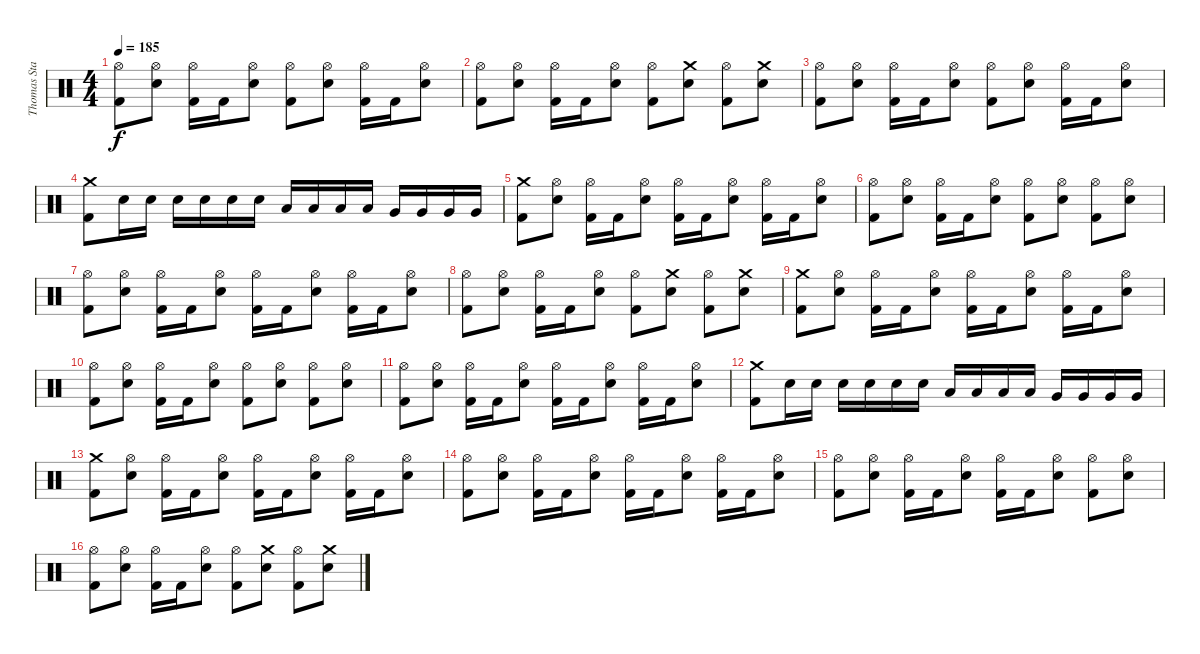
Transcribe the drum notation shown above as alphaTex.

\track ("Thomas Stauch" "Thomas Sta") {instrument percussion}
\staff {score}
\articulation defaults
\ts (4 4)
\tempo 185
\clef neutral
\ks c
("Hi-Hat (open)" "Kick (hit) 2").8{dy f} ("Hi-Hat (open)" "Electric Snare (hit)").8 ("Hi-Hat (open)" "Kick (hit) 2").16 "Kick (hit) 2".16 ("Hi-Hat (open)" "Electric Snare (hit)").8 ("Hi-Hat (open)" "Kick (hit) 2").8 ("Hi-Hat (open)" "Electric Snare (hit)").8 ("Hi-Hat (open)" "Kick (hit) 2").16 "Kick (hit) 2".16 ("Hi-Hat (open)" "Electric Snare (hit)").8 |
("Hi-Hat (open)" "Kick (hit) 2").8 ("Hi-Hat (open)" "Electric Snare (hit)").8 ("Hi-Hat (open)" "Kick (hit) 2").16 "Kick (hit) 2".16 ("Hi-Hat (open)" "Electric Snare (hit)").8 ("Hi-Hat (open)" "Kick (hit) 2").8 ("Crash medium (hit)" "Electric Snare (hit)").8 ("Hi-Hat (open)" "Kick (hit) 2").8 ("Crash medium (hit)" "Electric Snare (hit)").8 |
("Hi-Hat (open)" "Kick (hit) 2").8 ("Hi-Hat (open)" "Electric Snare (hit)").8 ("Hi-Hat (open)" "Kick (hit) 2").16 "Kick (hit) 2".16 ("Hi-Hat (open)" "Electric Snare (hit)").8 ("Hi-Hat (open)" "Kick (hit) 2").8 ("Hi-Hat (open)" "Electric Snare (hit)").8 ("Hi-Hat (open)" "Kick (hit) 2").16 "Kick (hit) 2".16 ("Hi-Hat (open)" "Electric Snare (hit)").8 |
("Crash medium (hit)" "Kick (hit) 2").8 "Electric Snare (hit)".16 "Electric Snare (hit)".16 "Electric Snare (hit)".16 "Electric Snare (hit)".16 "Electric Snare (hit)".16 "Electric Snare (hit)".16 "Low Tom (hit)".16 "Low Tom (hit)".16 "Low Tom (hit)".16 "Low Tom (hit)".16 "Very Low Tom (hit)".16 "Very Low Tom (hit)".16 "Very Low Tom (hit)".16 "Very Low Tom (hit)".16 |
("Crash medium (hit)" "Kick (hit) 2").8 ("Hi-Hat (open)" "Electric Snare (hit)").8 ("Hi-Hat (open)" "Kick (hit) 2").16 "Kick (hit) 2".16 ("Hi-Hat (open)" "Electric Snare (hit)").8 ("Hi-Hat (open)" "Kick (hit) 2").16 "Kick (hit) 2".16 ("Hi-Hat (open)" "Electric Snare (hit)").8 ("Hi-Hat (open)" "Kick (hit) 2").16 "Kick (hit) 2".16 ("Hi-Hat (open)" "Electric Snare (hit)").8 |
("Hi-Hat (open)" "Kick (hit) 2").8 ("Hi-Hat (open)" "Electric Snare (hit)").8 ("Hi-Hat (open)" "Kick (hit) 2").16 "Kick (hit) 2".16 ("Hi-Hat (open)" "Electric Snare (hit)").8 ("Hi-Hat (open)" "Kick (hit) 2").8 ("Hi-Hat (open)" "Electric Snare (hit)").8 ("Hi-Hat (open)" "Kick (hit) 2").8 ("Hi-Hat (open)" "Electric Snare (hit)").8 |
("Hi-Hat (open)" "Kick (hit) 2").8 ("Hi-Hat (open)" "Electric Snare (hit)").8 ("Hi-Hat (open)" "Kick (hit) 2").16 "Kick (hit) 2".16 ("Hi-Hat (open)" "Electric Snare (hit)").8 ("Hi-Hat (open)" "Kick (hit) 2").16 "Kick (hit) 2".16 ("Hi-Hat (open)" "Electric Snare (hit)").8 ("Hi-Hat (open)" "Kick (hit) 2").16 "Kick (hit) 2".16 ("Hi-Hat (open)" "Electric Snare (hit)").8 |
("Hi-Hat (open)" "Kick (hit) 2").8 ("Hi-Hat (open)" "Electric Snare (hit)").8 ("Hi-Hat (open)" "Kick (hit) 2").16 "Kick (hit) 2".16 ("Hi-Hat (open)" "Electric Snare (hit)").8 ("Hi-Hat (open)" "Kick (hit) 2").8 ("Crash medium (hit)" "Electric Snare (hit)").8 ("Hi-Hat (open)" "Kick (hit) 2").8 ("Crash medium (hit)" "Electric Snare (hit)").8 |
("Crash medium (hit)" "Kick (hit) 2").8 ("Hi-Hat (open)" "Electric Snare (hit)").8 ("Hi-Hat (open)" "Kick (hit) 2").16 "Kick (hit) 2".16 ("Hi-Hat (open)" "Electric Snare (hit)").8 ("Hi-Hat (open)" "Kick (hit) 2").16 "Kick (hit) 2".16 ("Hi-Hat (open)" "Electric Snare (hit)").8 ("Hi-Hat (open)" "Kick (hit) 2").16 "Kick (hit) 2".16 ("Hi-Hat (open)" "Electric Snare (hit)").8 |
("Hi-Hat (open)" "Kick (hit) 2").8 ("Hi-Hat (open)" "Electric Snare (hit)").8 ("Hi-Hat (open)" "Kick (hit) 2").16 "Kick (hit) 2".16 ("Hi-Hat (open)" "Electric Snare (hit)").8 ("Hi-Hat (open)" "Kick (hit) 2").8 ("Hi-Hat (open)" "Electric Snare (hit)").8 ("Hi-Hat (open)" "Kick (hit) 2").8 ("Hi-Hat (open)" "Electric Snare (hit)").8 |
("Hi-Hat (open)" "Kick (hit) 2").8 ("Hi-Hat (open)" "Electric Snare (hit)").8 ("Hi-Hat (open)" "Kick (hit) 2").16 "Kick (hit) 2".16 ("Hi-Hat (open)" "Electric Snare (hit)").8 ("Hi-Hat (open)" "Kick (hit) 2").16 "Kick (hit) 2".16 ("Hi-Hat (open)" "Electric Snare (hit)").8 ("Hi-Hat (open)" "Kick (hit) 2").16 "Kick (hit) 2".16 ("Hi-Hat (open)" "Electric Snare (hit)").8 |
("Crash medium (hit)" "Kick (hit) 2").8 "Electric Snare (hit)".16 "Electric Snare (hit)".16 "Electric Snare (hit)".16 "Electric Snare (hit)".16 "Electric Snare (hit)".16 "Electric Snare (hit)".16 "Low Tom (hit)".16 "Low Tom (hit)".16 "Low Tom (hit)".16 "Low Tom (hit)".16 "Very Low Tom (hit)".16 "Very Low Tom (hit)".16 "Very Low Tom (hit)".16 "Very Low Tom (hit)".16 |
("Crash medium (hit)" "Kick (hit) 2").8 ("Hi-Hat (open)" "Electric Snare (hit)").8 ("Hi-Hat (open)" "Kick (hit) 2").16 "Kick (hit) 2".16 ("Hi-Hat (open)" "Electric Snare (hit)").8 ("Hi-Hat (open)" "Kick (hit) 2").16 "Kick (hit) 2".16 ("Hi-Hat (open)" "Electric Snare (hit)").8 ("Hi-Hat (open)" "Kick (hit) 2").16 "Kick (hit) 2".16 ("Hi-Hat (open)" "Electric Snare (hit)").8 |
("Hi-Hat (open)" "Kick (hit) 2").8 ("Hi-Hat (open)" "Electric Snare (hit)").8 ("Hi-Hat (open)" "Kick (hit) 2").16 "Kick (hit) 2".16 ("Hi-Hat (open)" "Electric Snare (hit)").8 ("Hi-Hat (open)" "Kick (hit) 2").16 "Kick (hit) 2".16 ("Hi-Hat (open)" "Electric Snare (hit)").8 ("Hi-Hat (open)" "Kick (hit) 2").16 "Kick (hit) 2".16 ("Hi-Hat (open)" "Electric Snare (hit)").8 |
("Hi-Hat (open)" "Kick (hit) 2").8 ("Hi-Hat (open)" "Electric Snare (hit)").8 ("Hi-Hat (open)" "Kick (hit) 2").16 "Kick (hit) 2".16 ("Hi-Hat (open)" "Electric Snare (hit)").8 ("Hi-Hat (open)" "Kick (hit) 2").16 "Kick (hit) 2".16 ("Hi-Hat (open)" "Electric Snare (hit)").8 ("Hi-Hat (open)" "Kick (hit) 2").8 ("Hi-Hat (open)" "Electric Snare (hit)").8 |
("Hi-Hat (open)" "Kick (hit) 2").8 ("Hi-Hat (open)" "Electric Snare (hit)").8 ("Hi-Hat (open)" "Kick (hit) 2").16 "Kick (hit) 2".16 ("Hi-Hat (open)" "Electric Snare (hit)").8 ("Hi-Hat (open)" "Kick (hit) 2").8 ("Crash medium (hit)" "Electric Snare (hit)").8 ("Hi-Hat (open)" "Kick (hit) 2").8 ("Crash medium (hit)" "Electric Snare (hit)").8
